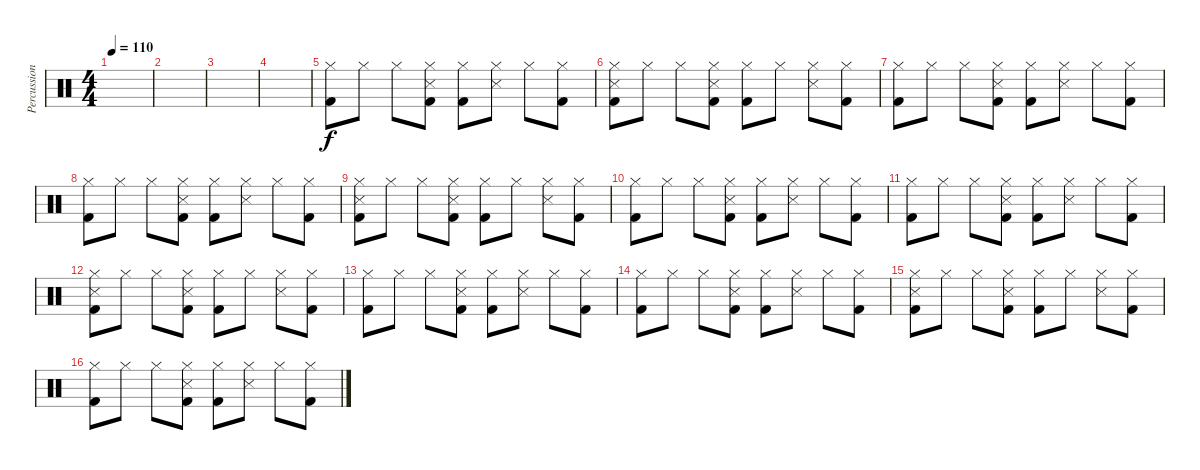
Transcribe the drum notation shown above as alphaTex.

\track ("Percussions" "Percussion") {instrument percussion}
\staff {score}
\articulation defaults
\ts (4 4)
\tempo 110
\clef neutral
\ks c
|
|
|
|
("Hi-Hat (closed)" "Kick (hit) 2").8 "Hi-Hat (closed)".8 "Hi-Hat (closed)".8 ("Hi-Hat (closed)" "Snare (side stick) 3" "Kick (hit) 2").8 ("Hi-Hat (closed)" "Kick (hit) 2").8 ("Hi-Hat (closed)" "Snare (side stick) 3").8 "Hi-Hat (closed)".8 ("Hi-Hat (closed)" "Kick (hit) 2").8 |
("Hi-Hat (closed)" "Snare (side stick) 3" "Kick (hit) 2").8 "Hi-Hat (closed)".8 "Hi-Hat (closed)".8 ("Hi-Hat (closed)" "Snare (side stick) 3" "Kick (hit) 2").8 ("Hi-Hat (closed)" "Kick (hit) 2").8 "Hi-Hat (closed)".8 ("Hi-Hat (closed)" "Snare (side stick) 3").8 ("Hi-Hat (closed)" "Kick (hit) 2").8 |
("Hi-Hat (closed)" "Kick (hit) 2").8 "Hi-Hat (closed)".8 "Hi-Hat (closed)".8 ("Hi-Hat (closed)" "Snare (side stick) 3" "Kick (hit) 2").8 ("Hi-Hat (closed)" "Kick (hit) 2").8 ("Hi-Hat (closed)" "Snare (side stick) 3").8 "Hi-Hat (closed)".8 ("Hi-Hat (closed)" "Kick (hit) 2").8 |
("Hi-Hat (closed)" "Kick (hit) 2").8 "Hi-Hat (closed)".8 "Hi-Hat (closed)".8 ("Hi-Hat (closed)" "Snare (side stick) 3" "Kick (hit) 2").8 ("Hi-Hat (closed)" "Kick (hit) 2").8 ("Hi-Hat (closed)" "Snare (side stick) 3").8 "Hi-Hat (closed)".8 ("Hi-Hat (closed)" "Kick (hit) 2").8 |
("Hi-Hat (closed)" "Snare (side stick) 3" "Kick (hit) 2").8 "Hi-Hat (closed)".8 "Hi-Hat (closed)".8 ("Hi-Hat (closed)" "Snare (side stick) 3" "Kick (hit) 2").8 ("Hi-Hat (closed)" "Kick (hit) 2").8 "Hi-Hat (closed)".8 ("Hi-Hat (closed)" "Snare (side stick) 3").8 ("Hi-Hat (closed)" "Kick (hit) 2").8 |
("Hi-Hat (closed)" "Kick (hit) 2").8 "Hi-Hat (closed)".8 "Hi-Hat (closed)".8 ("Hi-Hat (closed)" "Snare (side stick) 3" "Kick (hit) 2").8 ("Hi-Hat (closed)" "Kick (hit) 2").8 ("Hi-Hat (closed)" "Snare (side stick) 3").8 "Hi-Hat (closed)".8 ("Hi-Hat (closed)" "Kick (hit) 2").8 |
("Hi-Hat (closed)" "Kick (hit) 2").8 "Hi-Hat (closed)".8 "Hi-Hat (closed)".8 ("Hi-Hat (closed)" "Snare (side stick) 3" "Kick (hit) 2").8 ("Hi-Hat (closed)" "Kick (hit) 2").8 ("Hi-Hat (closed)" "Snare (side stick) 3").8 "Hi-Hat (closed)".8 ("Hi-Hat (closed)" "Kick (hit) 2").8 |
("Hi-Hat (closed)" "Snare (side stick) 3" "Kick (hit) 2").8 "Hi-Hat (closed)".8 "Hi-Hat (closed)".8 ("Hi-Hat (closed)" "Snare (side stick) 3" "Kick (hit) 2").8 ("Hi-Hat (closed)" "Kick (hit) 2").8 "Hi-Hat (closed)".8 ("Hi-Hat (closed)" "Snare (side stick) 3").8 ("Hi-Hat (closed)" "Kick (hit) 2").8 |
("Hi-Hat (closed)" "Kick (hit) 2").8 "Hi-Hat (closed)".8 "Hi-Hat (closed)".8 ("Hi-Hat (closed)" "Snare (side stick) 3" "Kick (hit) 2").8 ("Hi-Hat (closed)" "Kick (hit) 2").8 ("Hi-Hat (closed)" "Snare (side stick) 3").8 "Hi-Hat (closed)".8 ("Hi-Hat (closed)" "Kick (hit) 2").8 |
("Hi-Hat (closed)" "Kick (hit) 2").8 "Hi-Hat (closed)".8 "Hi-Hat (closed)".8 ("Hi-Hat (closed)" "Snare (side stick) 3" "Kick (hit) 2").8 ("Hi-Hat (closed)" "Kick (hit) 2").8 ("Hi-Hat (closed)" "Snare (side stick) 3").8 "Hi-Hat (closed)".8 ("Hi-Hat (closed)" "Kick (hit) 2").8 |
("Hi-Hat (closed)" "Snare (side stick) 3" "Kick (hit) 2").8 "Hi-Hat (closed)".8 "Hi-Hat (closed)".8 ("Hi-Hat (closed)" "Snare (side stick) 3" "Kick (hit) 2").8 ("Hi-Hat (closed)" "Kick (hit) 2").8 "Hi-Hat (closed)".8 ("Hi-Hat (closed)" "Snare (side stick) 3").8 ("Hi-Hat (closed)" "Kick (hit) 2").8 |
("Hi-Hat (closed)" "Kick (hit) 2").8 "Hi-Hat (closed)".8 "Hi-Hat (closed)".8 ("Hi-Hat (closed)" "Snare (side stick) 3" "Kick (hit) 2").8 ("Hi-Hat (closed)" "Kick (hit) 2").8 ("Hi-Hat (closed)" "Snare (side stick) 3").8 "Hi-Hat (closed)".8 ("Hi-Hat (closed)" "Kick (hit) 2").8
